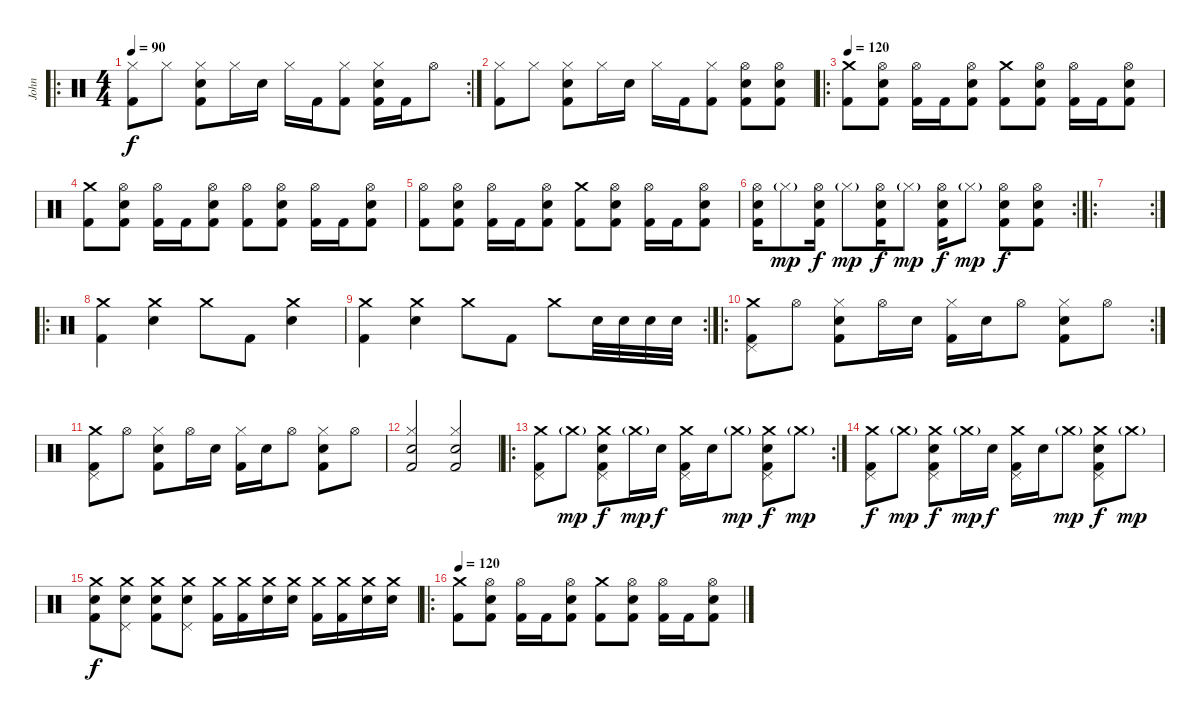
\track ("John" "John") {instrument percussion}
\staff {score}
\articulation defaults
\ro
\rc 2
\ts (4 4)
\tempo 90
\clef neutral
\ks c
("Kick (hit) 2" "Hi-Hat (closed)").8{dy f} "Hi-Hat (closed)".8 ("Kick (hit) 2" "Hi-Hat (closed)" "Electric Snare (hit)").8 "Hi-Hat (closed)".16 "Electric Snare (hit)".16 "Hi-Hat (closed)".16 "Kick (hit) 2".16 ("Kick (hit) 2" "Hi-Hat (closed)").8 ("Kick (hit) 2" "Hi-Hat (closed)" "Electric Snare (hit)").16 "Kick (hit) 2".16 "Hi-Hat (open)".8 |
("Kick (hit) 2" "Hi-Hat (closed)").8 "Hi-Hat (closed)".8 ("Kick (hit) 2" "Hi-Hat (closed)" "Electric Snare (hit)").8 "Hi-Hat (closed)".16 "Electric Snare (hit)".16 "Hi-Hat (closed)".16 "Kick (hit) 2".16 ("Kick (hit) 2" "Hi-Hat (closed)").8 ("Kick (hit) 2" "Hi-Hat (open)" "Electric Snare (hit)").8 ("Kick (hit) 2" "Hi-Hat (open)" "Electric Snare (hit)").8 |
\ro
\tempo 120
("Crash medium (hit)" "Kick (hit) 2").8 ("Hi-Hat (open)" "Kick (hit) 2" "Electric Snare (hit)").8 ("Hi-Hat (open)" "Kick (hit) 2").16 "Kick (hit) 2".16 ("Hi-Hat (open)" "Kick (hit) 2" "Electric Snare (hit)").8 ("Crash medium (hit)" "Kick (hit) 2").8 ("Hi-Hat (open)" "Kick (hit) 2" "Electric Snare (hit)").8 ("Hi-Hat (open)" "Kick (hit) 2").16 "Kick (hit) 2".16 ("Hi-Hat (open)" "Kick (hit) 2" "Electric Snare (hit)").8 |
("Crash medium (hit)" "Kick (hit) 2").8 ("Hi-Hat (open)" "Kick (hit) 2" "Electric Snare (hit)").8 ("Hi-Hat (open)" "Kick (hit) 2").16 "Kick (hit) 2".16 ("Hi-Hat (open)" "Kick (hit) 2" "Electric Snare (hit)").8 ("Hi-Hat (open)" "Kick (hit) 2").8 ("Hi-Hat (open)" "Kick (hit) 2" "Electric Snare (hit)").8 ("Hi-Hat (open)" "Kick (hit) 2").16 "Kick (hit) 2".16 ("Hi-Hat (open)" "Kick (hit) 2" "Electric Snare (hit)").8 |
("Hi-Hat (open)" "Kick (hit) 2").8 ("Hi-Hat (open)" "Kick (hit) 2" "Electric Snare (hit)").8 ("Hi-Hat (open)" "Kick (hit) 2").16 "Kick (hit) 2".16 ("Hi-Hat (open)" "Kick (hit) 2" "Electric Snare (hit)").8 ("Crash medium (hit)" "Kick (hit) 2").8 ("Hi-Hat (open)" "Kick (hit) 2" "Electric Snare (hit)").8 ("Hi-Hat (open)" "Kick (hit) 2").16 "Kick (hit) 2".16 ("Hi-Hat (open)" "Kick (hit) 2" "Electric Snare (hit)").8 |
\rc 2
("Hi-Hat (open)" "Kick (hit) 2" "Electric Snare (hit)").16 "Hi-Hat (closed)"{g}.8{dy mp} ("Hi-Hat (open)" "Kick (hit) 2" "Electric Snare (hit)").16{dy f} "Hi-Hat (closed)"{g}.8{dy mp} ("Hi-Hat (open)" "Kick (hit) 2" "Electric Snare (hit)").16{dy f} "Hi-Hat (closed)"{g}.8{dy mp} ("Hi-Hat (open)" "Kick (hit) 2" "Electric Snare (hit)").16{dy f} "Hi-Hat (closed)"{g}.8{dy mp} ("Hi-Hat (open)" "Kick (hit) 2" "Electric Snare (hit)").8{dy f} ("Hi-Hat (open)" "Kick (hit) 2" "Electric Snare (hit)").8 |
\ro
\rc 2
|
\ro
("Crash medium (hit)" "Kick (hit) 2").4 ("Crash medium (hit)" "Electric Snare (hit)").4 "Crash medium (hit)".8 "Kick (hit) 2".8 ("Crash medium (hit)" "Electric Snare (hit)").4 |
\rc 2
("Crash medium (hit)" "Kick (hit) 2").4 ("Crash medium (hit)" "Electric Snare (hit)").4 "Crash medium (hit)".8 "Kick (hit) 2".8 "Crash medium (hit)".8 "Electric Snare (hit)".32 "Electric Snare (hit)".32 "Electric Snare (hit)".32 "Electric Snare (hit)".32 |
\ro
\rc 2
("Crash medium (hit)" "Kick (hit) 2" "Pedal Hi-Hat (hit)").8 "Hi-Hat (open)".8 ("Kick (hit) 2" "Hi-Hat (closed)" "Electric Snare (hit)").8 "Hi-Hat (open)".16 "Electric Snare (hit)".16 ("Kick (hit) 2" "Hi-Hat (closed)").16 "Electric Snare (hit)".16 "Hi-Hat (open)".8 ("Kick (hit) 2" "Hi-Hat (closed)" "Electric Snare (hit)").8 "Hi-Hat (open)".8 |
("Crash medium (hit)" "Kick (hit) 2" "Pedal Hi-Hat (hit)").8 "Hi-Hat (open)".8 ("Kick (hit) 2" "Hi-Hat (closed)" "Electric Snare (hit)").8 "Hi-Hat (open)".16 "Electric Snare (hit)".16 ("Kick (hit) 2" "Hi-Hat (closed)").16 "Electric Snare (hit)".16 "Hi-Hat (open)".8 ("Kick (hit) 2" "Hi-Hat (closed)" "Electric Snare (hit)").8 "Hi-Hat (open)".8 |
("Kick (hit) 2" "Hi-Hat (closed)" "Electric Snare (hit)").2 ("Kick (hit) 2" "Hi-Hat (closed)" "Electric Snare (hit)").2 |
\ro
\rc 2
("Crash medium (hit)" "Kick (hit) 2" "Pedal Hi-Hat (hit)").8 "Crash medium (hit)"{g}.8{dy mp} ("Crash medium (hit)" "Kick (hit) 2" "Pedal Hi-Hat (hit)" "Electric Snare (hit)").8{dy f} "Crash medium (hit)"{g}.16{dy mp} "Electric Snare (hit)".16{dy f} ("Crash medium (hit)" "Kick (hit) 2" "Pedal Hi-Hat (hit)").16 "Electric Snare (hit)".16 "Crash medium (hit)"{g}.8{dy mp} ("Crash medium (hit)" "Kick (hit) 2" "Pedal Hi-Hat (hit)" "Electric Snare (hit)").8{dy f} "Crash medium (hit)"{g}.8{dy mp} |
("Crash medium (hit)" "Kick (hit) 2" "Pedal Hi-Hat (hit)").8{dy f} "Crash medium (hit)"{g}.8{dy mp} ("Crash medium (hit)" "Kick (hit) 2" "Pedal Hi-Hat (hit)" "Electric Snare (hit)").8{dy f} "Crash medium (hit)"{g}.16{dy mp} "Electric Snare (hit)".16{dy f} ("Crash medium (hit)" "Kick (hit) 2" "Pedal Hi-Hat (hit)").16 "Electric Snare (hit)".16 "Crash medium (hit)"{g}.8{dy mp} ("Crash medium (hit)" "Kick (hit) 2" "Pedal Hi-Hat (hit)" "Electric Snare (hit)").8{dy f} "Crash medium (hit)"{g}.8{dy mp} |
("Crash medium (hit)" "Kick (hit) 2" "Electric Snare (hit)").8{dy f} ("Crash medium (hit)" "Pedal Hi-Hat (hit)" "Electric Snare (hit)").8 ("Crash medium (hit)" "Kick (hit) 2" "Electric Snare (hit)").8 ("Crash medium (hit)" "Pedal Hi-Hat (hit)" "Electric Snare (hit)").8 ("Crash medium (hit)" "Kick (hit) 2").16 ("Crash medium (hit)" "Kick (hit) 2").16 ("Crash medium (hit)" "Electric Snare (hit)").16 ("Crash medium (hit)" "Electric Snare (hit)").16 ("Crash medium (hit)" "Kick (hit) 2").16 ("Crash medium (hit)" "Kick (hit) 2").16 ("Crash medium (hit)" "Electric Snare (hit)").16 ("Crash medium (hit)" "Electric Snare (hit)").16 |
\ro
\tempo 120
("Crash medium (hit)" "Kick (hit) 2").8 ("Hi-Hat (open)" "Kick (hit) 2" "Electric Snare (hit)").8 ("Hi-Hat (open)" "Kick (hit) 2").16 "Kick (hit) 2".16 ("Hi-Hat (open)" "Kick (hit) 2" "Electric Snare (hit)").8 ("Crash medium (hit)" "Kick (hit) 2").8 ("Hi-Hat (open)" "Kick (hit) 2" "Electric Snare (hit)").8 ("Hi-Hat (open)" "Kick (hit) 2").16 "Kick (hit) 2".16 ("Hi-Hat (open)" "Kick (hit) 2" "Electric Snare (hit)").8
